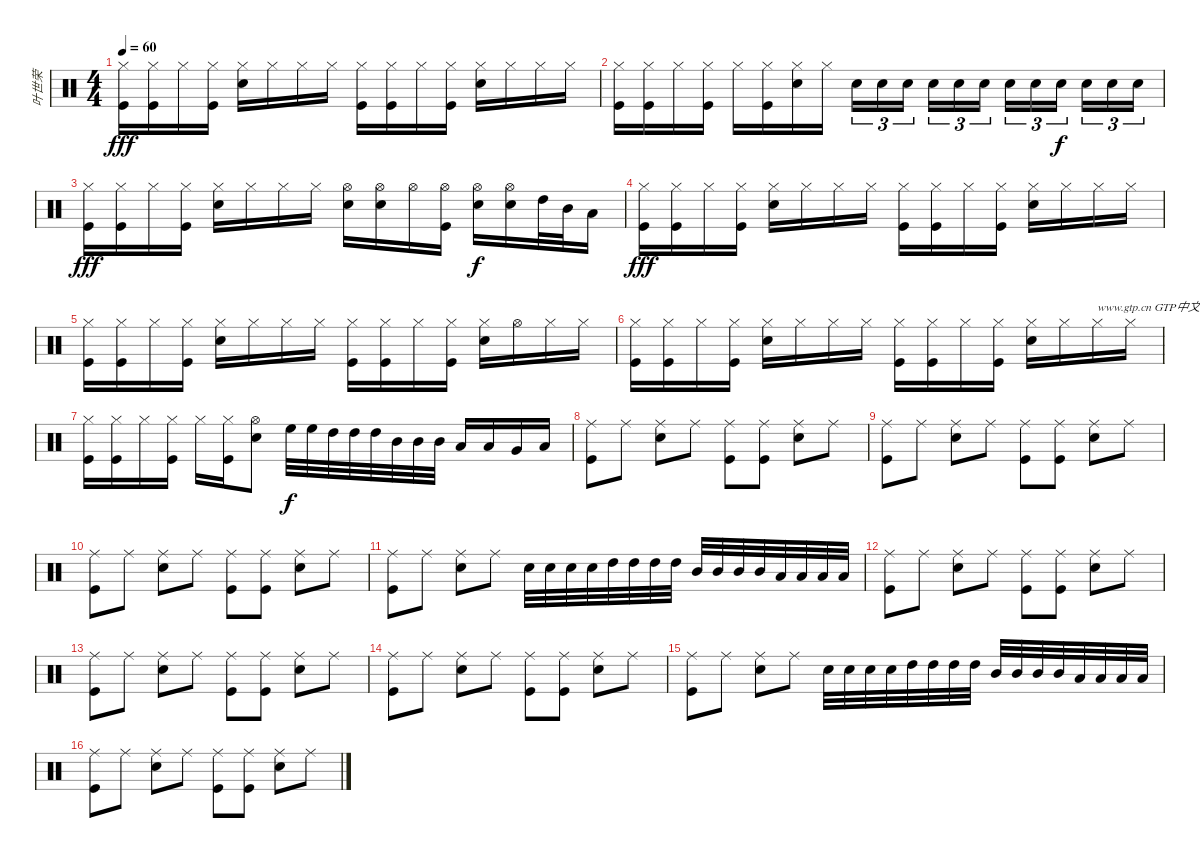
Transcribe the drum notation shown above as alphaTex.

\track ("叶世荣" "叶世荣") {instrument percussion}
\staff {score}
\articulation defaults
\ts (4 4)
\tempo 60
\clef neutral
\ks c
("Hi-Hat (closed)" "Kick (hit)").16{dy fff} ("Hi-Hat (closed)" "Kick (hit)").16 "Hi-Hat (closed)".16 ("Hi-Hat (closed)" "Kick (hit)").16 ("Hi-Hat (closed)" "Snare (hit) 2").16 "Hi-Hat (closed)".16 "Hi-Hat (closed)".16 "Hi-Hat (closed)".16 ("Hi-Hat (closed)" "Kick (hit)").16 ("Hi-Hat (closed)" "Kick (hit)").16 "Hi-Hat (closed)".16 ("Hi-Hat (closed)" "Kick (hit)").16 ("Hi-Hat (closed)" "Snare (hit) 2").16 "Hi-Hat (closed)".16 "Hi-Hat (closed)".16 "Hi-Hat (closed)".16 |
("Hi-Hat (closed)" "Kick (hit)").16 ("Hi-Hat (closed)" "Kick (hit)").16 "Hi-Hat (closed)".16 ("Hi-Hat (closed)" "Kick (hit)").16 "Hi-Hat (closed)".16 ("Hi-Hat (closed)" "Kick (hit)").16 ("Hi-Hat (closed)" "Snare (hit) 2").16 "Hi-Hat (closed)".16 "Snare (hit) 2".16{tu (3 2)} "Snare (hit) 2".16{tu (3 2)} "Snare (hit) 2".16{tu (3 2) beam splitsecondary} "Snare (hit) 2".16{tu (3 2)} "Snare (hit) 2".16{tu (3 2)} "Snare (hit) 2".16{tu (3 2)} "Snare (hit) 2".16{tu (3 2)} "Snare (hit) 2".16{tu (3 2)} "Snare (hit) 2".16{tu (3 2) dy f beam splitsecondary} "Snare (hit) 2".16{tu (3 2)} "Snare (hit) 2".16{tu (3 2)} "Snare (hit) 2".16{tu (3 2)} |
("Hi-Hat (closed)" "Kick (hit)").16{dy fff} ("Hi-Hat (closed)" "Kick (hit)").16 "Hi-Hat (closed)".16 ("Hi-Hat (closed)" "Kick (hit)").16 ("Hi-Hat (closed)" "Snare (hit) 2").16 "Hi-Hat (closed)".16 "Hi-Hat (closed)".16 "Hi-Hat (closed)".16 ("Hi-Hat (open)" "Snare (hit) 2").16 ("Hi-Hat (open)" "Snare (hit) 2").16 "Hi-Hat (open)".16 ("Hi-Hat (open)" "Kick (hit)").16 ("Hi-Hat (open)" "Snare (hit) 2").16{dy f} ("Hi-Hat (open)" "Snare (hit) 2").16 "High Tom (hit)".32 "Mid Tom (hit)".32 "Low Tom (hit)".16 |
("Hi-Hat (closed)" "Kick (hit)").16{dy fff} ("Hi-Hat (closed)" "Kick (hit)").16 "Hi-Hat (closed)".16 ("Hi-Hat (closed)" "Kick (hit)").16 ("Hi-Hat (closed)" "Snare (hit) 2").16 "Hi-Hat (closed)".16 "Hi-Hat (closed)".16 "Hi-Hat (closed)".16 ("Hi-Hat (closed)" "Kick (hit)").16 ("Hi-Hat (closed)" "Kick (hit)").16 "Hi-Hat (closed)".16 ("Hi-Hat (closed)" "Kick (hit)").16 ("Hi-Hat (closed)" "Snare (hit) 2").16 "Hi-Hat (closed)".16 "Hi-Hat (closed)".16 "Hi-Hat (closed)".16 |
("Hi-Hat (closed)" "Kick (hit)").16 ("Hi-Hat (closed)" "Kick (hit)").16 "Hi-Hat (closed)".16 ("Hi-Hat (closed)" "Kick (hit)").16 ("Hi-Hat (closed)" "Snare (hit) 2").16 "Hi-Hat (closed)".16 "Hi-Hat (closed)".16 "Hi-Hat (closed)".16 ("Hi-Hat (closed)" "Kick (hit)").16 ("Hi-Hat (closed)" "Kick (hit)").16 "Hi-Hat (closed)".16 ("Hi-Hat (closed)" "Kick (hit)").16 ("Hi-Hat (closed)" "Snare (hit) 2").16 "Hi-Hat (open)".16 "Hi-Hat (closed)".16 "Hi-Hat (closed)".16 |
("Hi-Hat (closed)" "Kick (hit)").16 ("Hi-Hat (closed)" "Kick (hit)").16 "Hi-Hat (closed)".16 ("Hi-Hat (closed)" "Kick (hit)").16 ("Hi-Hat (closed)" "Snare (hit) 2").16 "Hi-Hat (closed)".16 "Hi-Hat (closed)".16 "Hi-Hat (closed)".16 ("Hi-Hat (closed)" "Kick (hit)").16 ("Hi-Hat (closed)" "Kick (hit)").16 "Hi-Hat (closed)".16 ("Hi-Hat (closed)" "Kick (hit)").16 ("Hi-Hat (closed)" "Snare (hit) 2").16 "Hi-Hat (closed)".16 "Hi-Hat (closed)".16{txt "www.gtp.cn GTP中文娱乐网为您提供优秀的谱子"} "Hi-Hat (closed)".16 |
("Hi-Hat (closed)" "Kick (hit)").16 ("Hi-Hat (closed)" "Kick (hit)").16 "Hi-Hat (closed)".16 ("Hi-Hat (closed)" "Kick (hit)").16 "Hi-Hat (closed)".16 ("Hi-Hat (closed)" "Kick (hit)").16 ("Hi-Hat (open)" "Snare (hit) 2").8 "High Floor Tom (hit)".32{dy f} "High Floor Tom (hit)".32 "High Tom (hit)".32 "High Tom (hit)".32 "High Tom (hit)".32 "Mid Tom (hit)".32 "Mid Tom (hit)".32 "Mid Tom (hit)".32 "Low Tom (hit)".16 "Low Tom (hit)".16 "Very Low Tom (hit)".16 "Low Floor Tom (hit)".16 |
("Ride (middle)" "Kick (hit)").8 "Ride (middle)".8 ("Ride (middle)" "Snare (hit) 2").8 "Ride (middle)".8 ("Ride (middle)" "Kick (hit)").8 ("Ride (middle)" "Kick (hit)").8 ("Ride (middle)" "Snare (hit) 2").8 "Ride (middle)".8 |
("Ride (middle)" "Kick (hit)").8 "Ride (middle)".8 ("Ride (middle)" "Snare (hit) 2").8 "Ride (middle)".8 ("Ride (middle)" "Kick (hit)").8 ("Ride (middle)" "Kick (hit)").8 ("Ride (middle)" "Snare (hit) 2").8 "Ride (middle)".8 |
("Ride (middle)" "Kick (hit)").8 "Ride (middle)".8 ("Ride (middle)" "Snare (hit) 2").8 "Ride (middle)".8 ("Ride (middle)" "Kick (hit)").8 ("Ride (middle)" "Kick (hit)").8 ("Ride (middle)" "Snare (hit) 2").8 "Ride (middle)".8 |
("Ride (middle)" "Kick (hit)").8 "Ride (middle)".8 ("Ride (middle)" "Snare (hit) 2").8 "Ride (middle)".8 "Snare (hit) 2".32 "Snare (hit) 2".32 "Snare (hit) 2".32 "Snare (hit) 2".32 "High Tom (hit)".32 "High Tom (hit)".32 "High Tom (hit)".32 "High Tom (hit)".32 "Mid Tom (hit)".32 "Mid Tom (hit)".32 "Mid Tom (hit)".32 "Mid Tom (hit)".32 "Low Tom (hit)".32 "Low Tom (hit)".32 "Low Tom (hit)".32 "Low Tom (hit)".32 |
("Ride (middle)" "Kick (hit)").8 "Ride (middle)".8 ("Ride (middle)" "Snare (hit) 2").8 "Ride (middle)".8 ("Ride (middle)" "Kick (hit)").8 ("Ride (middle)" "Kick (hit)").8 ("Ride (middle)" "Snare (hit) 2").8 "Ride (middle)".8 |
("Ride (middle)" "Kick (hit)").8 "Ride (middle)".8 ("Ride (middle)" "Snare (hit) 2").8 "Ride (middle)".8 ("Ride (middle)" "Kick (hit)").8 ("Ride (middle)" "Kick (hit)").8 ("Ride (middle)" "Snare (hit) 2").8 "Ride (middle)".8 |
("Ride (middle)" "Kick (hit)").8 "Ride (middle)".8 ("Ride (middle)" "Snare (hit) 2").8 "Ride (middle)".8 ("Ride (middle)" "Kick (hit)").8 ("Ride (middle)" "Kick (hit)").8 ("Ride (middle)" "Snare (hit) 2").8 "Ride (middle)".8 |
("Ride (middle)" "Kick (hit)").8 "Ride (middle)".8 ("Ride (middle)" "Snare (hit) 2").8 "Ride (middle)".8 "Snare (hit) 2".32 "Snare (hit) 2".32 "Snare (hit) 2".32 "Snare (hit) 2".32 "High Tom (hit)".32 "High Tom (hit)".32 "High Tom (hit)".32 "High Tom (hit)".32 "Mid Tom (hit)".32 "Mid Tom (hit)".32 "Mid Tom (hit)".32 "Mid Tom (hit)".32 "Low Tom (hit)".32 "Low Tom (hit)".32 "Low Tom (hit)".32 "Low Tom (hit)".32 |
("Ride (middle)" "Kick (hit)").8 "Ride (middle)".8 ("Ride (middle)" "Snare (hit) 2").8 "Ride (middle)".8 ("Ride (middle)" "Kick (hit)").8 ("Ride (middle)" "Kick (hit)").8 ("Ride (middle)" "Snare (hit) 2").8 "Ride (middle)".8
